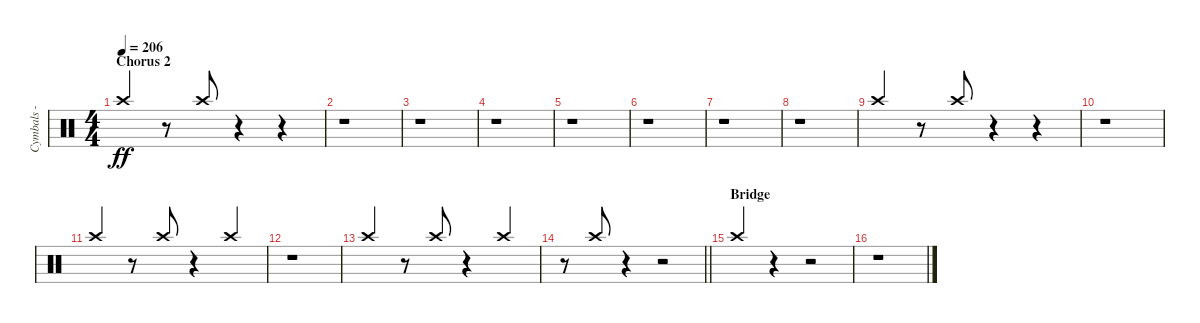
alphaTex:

\track ("Cymbals - crash" "Cymbals - ") {instrument percussion}
\staff {score}
\articulation defaults
\ts (4 4)
\section ("" "Chorus 2")
\tempo 206
\clef neutral
\ks c "Crash high (hit)".4{dy ff beam Up}
r.8 "Crash high (hit)".8{beam Up} r.4 r.4 |
r.1 |
r.1 |
r.1 |
r.1 |
r.1 |
r.1 |
r.1 |
"Crash high (hit)".4{beam Up} r.8 "Crash high (hit)".8{beam Up} r.4 r.4 |
r.1 |
"Crash high (hit)".4{beam Up} r.8 "Crash high (hit)".8{beam Up} r.4 "Crash high (hit)".4{beam Up} |
r.1 |
"Crash high (hit)".4{beam Up} r.8 "Crash high (hit)".8{beam Up} r.4 "Crash high (hit)".4{beam Up} |
\barLineRight lightlight
r.8 "Crash high (hit)".8{beam Up} r.4 r.2 |
\section ("" "Bridge")
"Crash high (hit)".4{beam Up} r.4 r.2 |
r.1
